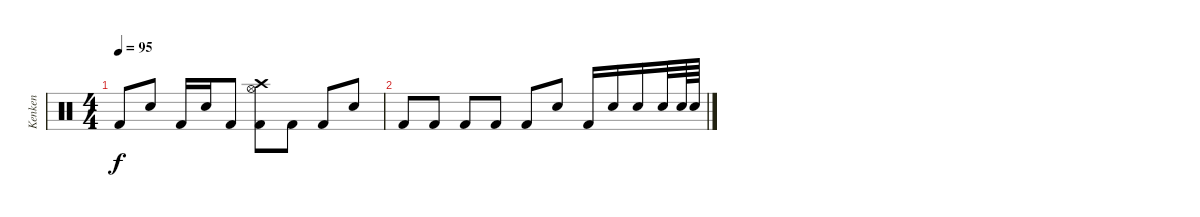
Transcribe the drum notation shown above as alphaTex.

\track ("Kenken" "Kenken") {instrument percussion}
\staff {score}
\articulation defaults
\ts (4 4)
\tempo 95
\clef neutral
\ks c "Kick (hit) 2".8{dy f} "Electric Snare (hit)".8 "Kick (hit) 2".16 "Electric Snare (hit)".16 "Kick (hit) 2".8
("Hi-Hat (open)" "Crash high (hit)" "Kick (hit) 2").8 "Kick (hit) 2".8 "Kick (hit) 2".8 "Electric Snare (hit)".8 |
"Kick (hit) 2".8 "Kick (hit) 2".8 "Kick (hit) 2".8 "Kick (hit) 2".8 "Kick (hit) 2".8 "Electric Snare (hit)".8 "Kick (hit) 2".16 "Electric Snare (hit)".16 "Electric Snare (hit)".16 "Electric Snare (hit)".32 "Electric Snare (hit)".64 "Electric Snare (hit)".64
